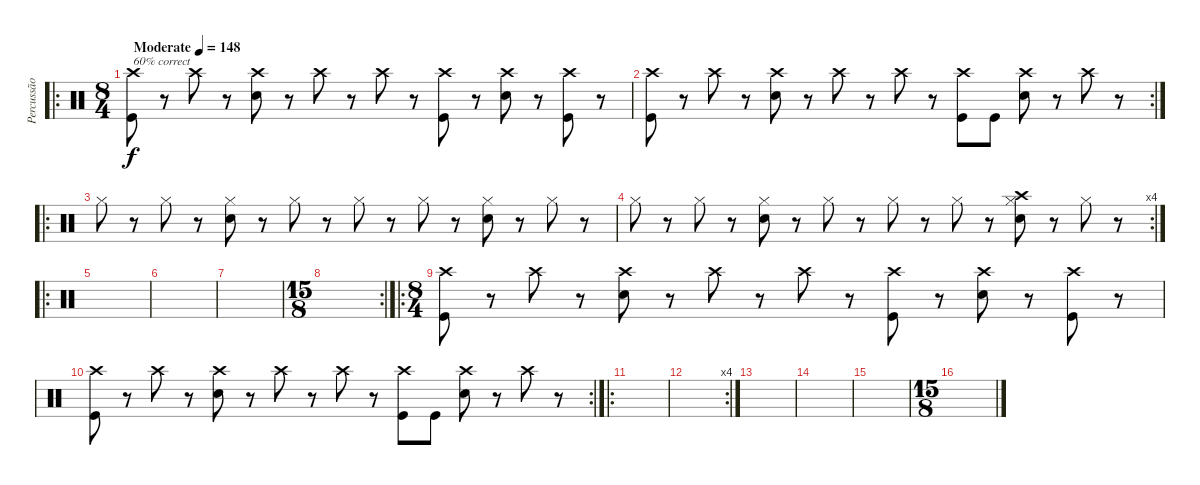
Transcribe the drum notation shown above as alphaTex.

\track ("Percussão" "Percussão") {instrument percussion}
\staff {score}
\articulation defaults
\ro
\ts (8 4)
\tempo (148 "Moderate")
\clef neutral
\ks c
("Crash high (hit)" "Kick (hit)").8{txt "60% correct" dy f} r.8 "Crash high (hit)".8 r.8 ("Crash high (hit)" "Snare (hit) 2").8 r.8 "Crash high (hit)".8 r.8 "Crash high (hit)".8 r.8 ("Crash high (hit)" "Kick (hit)").8 r.8 ("Crash high (hit)" "Snare (hit) 2").8 r.8 ("Crash high (hit)" "Kick (hit)").8 r.8 |
\rc 2
("Crash high (hit)" "Kick (hit)").8 r.8 "Crash high (hit)".8 r.8 ("Crash high (hit)" "Snare (hit) 2").8 r.8 "Crash high (hit)".8 r.8 "Crash high (hit)".8 r.8 ("Crash high (hit)" "Kick (hit)").8 "Kick (hit)".8 ("Crash high (hit)" "Snare (hit) 2").8 r.8 "Crash high (hit)".8 r.8 |
\ro "Hi-Hat (closed)".8
r.8 "Hi-Hat (closed)".8 r.8 ("Electric Snare (hit)" "Hi-Hat (closed)").8 r.8 "Hi-Hat (closed)".8 r.8 "Hi-Hat (closed)".8 r.8 "Hi-Hat (closed)".8 r.8 ("Electric Snare (hit)" "Hi-Hat (closed)").8 r.8 "Hi-Hat (closed)".8 r.8 |
\rc 4 "Hi-Hat (closed)".8
r.8 "Hi-Hat (closed)".8 r.8 ("Electric Snare (hit)" "Hi-Hat (closed)").8 r.8 "Hi-Hat (closed)".8 r.8 "Hi-Hat (closed)".8 r.8 "Hi-Hat (closed)".8 r.8 ("Crash high (hit)" "Electric Snare (hit)" "Hi-Hat (closed)").8 r.8 "Hi-Hat (closed)".8 r.8 |
\ro
|
|
|
\rc 2
\ts (15 8)
|
\ro
\ts (8 4)
("Crash high (hit)" "Kick (hit)").8 r.8 "Crash high (hit)".8 r.8 ("Crash high (hit)" "Snare (hit) 2").8 r.8 "Crash high (hit)".8 r.8 "Crash high (hit)".8 r.8 ("Crash high (hit)" "Kick (hit)").8 r.8 ("Crash high (hit)" "Snare (hit) 2").8 r.8 ("Crash high (hit)" "Kick (hit)").8 r.8 |
\rc 2
("Crash high (hit)" "Kick (hit)").8 r.8 "Crash high (hit)".8 r.8 ("Crash high (hit)" "Snare (hit) 2").8 r.8 "Crash high (hit)".8 r.8 "Crash high (hit)".8 r.8 ("Crash high (hit)" "Kick (hit)").8 "Kick (hit)".8 ("Crash high (hit)" "Snare (hit) 2").8 r.8 "Crash high (hit)".8 r.8 |
\ro
|
\rc 4
|
|
|
|
\ts (15 8)
